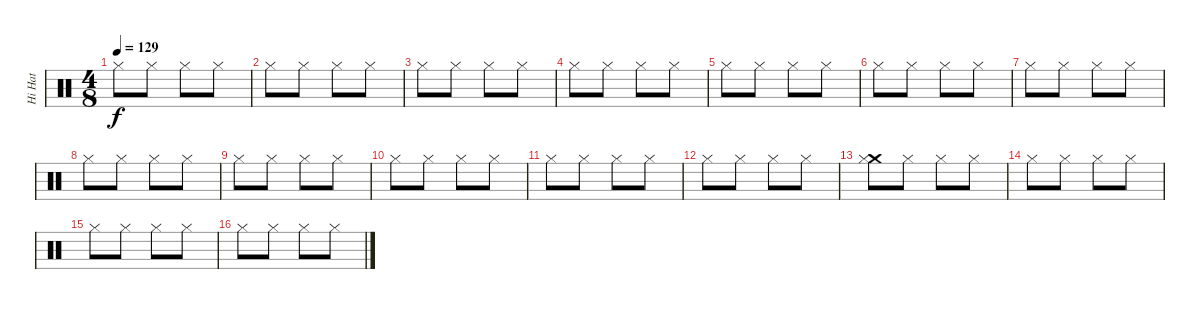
\track ("Hi Hat" "Hi Hat") {instrument percussion}
\staff {score}
\articulation defaults
\ts (4 8)
\tempo 129
\clef neutral
\ks c "Hi-Hat (closed)".8{dy f} "Hi-Hat (closed)".8 "Hi-Hat (closed)".8 "Hi-Hat (closed)".8
|
"Hi-Hat (closed)".8 "Hi-Hat (closed)".8 "Hi-Hat (closed)".8 "Hi-Hat (closed)".8 |
"Hi-Hat (closed)".8 "Hi-Hat (closed)".8 "Hi-Hat (closed)".8 "Hi-Hat (closed)".8 |
"Hi-Hat (closed)".8 "Hi-Hat (closed)".8 "Hi-Hat (closed)".8 "Hi-Hat (closed)".8 |
"Hi-Hat (closed)".8 "Hi-Hat (closed)".8 "Hi-Hat (closed)".8 "Hi-Hat (closed)".8 |
"Hi-Hat (closed)".8 "Hi-Hat (closed)".8 "Hi-Hat (closed)".8 "Hi-Hat (closed)".8 |
"Hi-Hat (closed)".8 "Hi-Hat (closed)".8 "Hi-Hat (closed)".8 "Hi-Hat (closed)".8 |
"Hi-Hat (closed)".8 "Hi-Hat (closed)".8 "Hi-Hat (closed)".8 "Hi-Hat (closed)".8 |
"Hi-Hat (closed)".8 "Hi-Hat (closed)".8 "Hi-Hat (closed)".8 "Hi-Hat (closed)".8 |
"Hi-Hat (closed)".8 "Hi-Hat (closed)".8 "Hi-Hat (closed)".8 "Hi-Hat (closed)".8 |
"Hi-Hat (closed)".8 "Hi-Hat (closed)".8 "Hi-Hat (closed)".8 "Hi-Hat (closed)".8 |
"Hi-Hat (closed)".8 "Hi-Hat (closed)".8 "Hi-Hat (closed)".8 "Hi-Hat (closed)".8 |
("Crash medium (hit)" "Hi-Hat (closed)").8 "Hi-Hat (closed)".8 "Hi-Hat (closed)".8 "Hi-Hat (closed)".8 |
"Hi-Hat (closed)".8 "Hi-Hat (closed)".8 "Hi-Hat (closed)".8 "Hi-Hat (closed)".8 |
"Hi-Hat (closed)".8 "Hi-Hat (closed)".8 "Hi-Hat (closed)".8 "Hi-Hat (closed)".8 |
"Hi-Hat (closed)".8 "Hi-Hat (closed)".8 "Hi-Hat (closed)".8 "Hi-Hat (closed)".8
